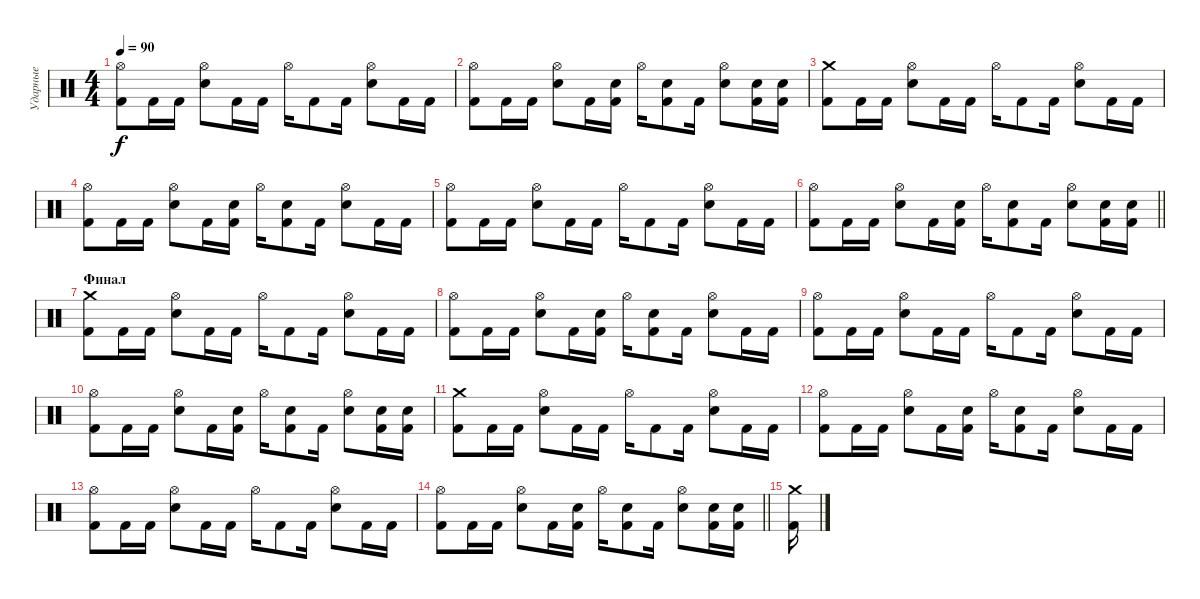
\track ("Ударные" "Ударные") {instrument percussion}
\staff {score}
\articulation defaults
\ts (4 4)
\tempo 90
\clef neutral
\ks c
("Kick (hit) 2" "Hi-Hat (open)").8{dy f} "Kick (hit) 2".16 "Kick (hit) 2".16 ("Electric Snare (hit)" "Hi-Hat (open)").8 "Kick (hit) 2".16 "Kick (hit) 2".16 "Hi-Hat (open)".16 "Kick (hit) 2".8 "Kick (hit) 2".16 ("Electric Snare (hit)" "Hi-Hat (open)").8 "Kick (hit) 2".16 "Kick (hit) 2".16 |
("Kick (hit) 2" "Hi-Hat (open)").8 "Kick (hit) 2".16 "Kick (hit) 2".16 ("Electric Snare (hit)" "Hi-Hat (open)").8 "Kick (hit) 2".16 ("Kick (hit) 2" "Electric Snare (hit)").16 "Hi-Hat (open)".16 ("Kick (hit) 2" "Electric Snare (hit)").8 "Kick (hit) 2".16 ("Electric Snare (hit)" "Hi-Hat (open)").8 ("Kick (hit) 2" "Electric Snare (hit)").16 ("Kick (hit) 2" "Electric Snare (hit)").16 |
("Kick (hit) 2" "Crash medium (hit)").8 "Kick (hit) 2".16 "Kick (hit) 2".16 ("Electric Snare (hit)" "Hi-Hat (open)").8 "Kick (hit) 2".16 "Kick (hit) 2".16 "Hi-Hat (open)".16 "Kick (hit) 2".8 "Kick (hit) 2".16 ("Electric Snare (hit)" "Hi-Hat (open)").8 "Kick (hit) 2".16 "Kick (hit) 2".16 |
("Kick (hit) 2" "Hi-Hat (open)").8 "Kick (hit) 2".16 "Kick (hit) 2".16 ("Electric Snare (hit)" "Hi-Hat (open)").8 "Kick (hit) 2".16 ("Kick (hit) 2" "Electric Snare (hit)").16 "Hi-Hat (open)".16 ("Kick (hit) 2" "Electric Snare (hit)").8 "Kick (hit) 2".16 ("Electric Snare (hit)" "Hi-Hat (open)").8 "Kick (hit) 2".16 "Kick (hit) 2".16 |
("Kick (hit) 2" "Hi-Hat (open)").8 "Kick (hit) 2".16 "Kick (hit) 2".16 ("Electric Snare (hit)" "Hi-Hat (open)").8 "Kick (hit) 2".16 "Kick (hit) 2".16 "Hi-Hat (open)".16 "Kick (hit) 2".8 "Kick (hit) 2".16 ("Electric Snare (hit)" "Hi-Hat (open)").8 "Kick (hit) 2".16 "Kick (hit) 2".16 |
\barLineRight lightlight
("Kick (hit) 2" "Hi-Hat (open)").8 "Kick (hit) 2".16 "Kick (hit) 2".16 ("Electric Snare (hit)" "Hi-Hat (open)").8 "Kick (hit) 2".16 ("Kick (hit) 2" "Electric Snare (hit)").16 "Hi-Hat (open)".16 ("Kick (hit) 2" "Electric Snare (hit)").8 "Kick (hit) 2".16 ("Electric Snare (hit)" "Hi-Hat (open)").8 ("Kick (hit) 2" "Electric Snare (hit)").16 ("Kick (hit) 2" "Electric Snare (hit)").16 |
\section ("" "Финал")
("Kick (hit) 2" "Crash medium (hit)").8 "Kick (hit) 2".16 "Kick (hit) 2".16 ("Electric Snare (hit)" "Hi-Hat (open)").8 "Kick (hit) 2".16 "Kick (hit) 2".16 "Hi-Hat (open)".16 "Kick (hit) 2".8 "Kick (hit) 2".16 ("Electric Snare (hit)" "Hi-Hat (open)").8 "Kick (hit) 2".16 "Kick (hit) 2".16 |
("Kick (hit) 2" "Hi-Hat (open)").8 "Kick (hit) 2".16 "Kick (hit) 2".16 ("Electric Snare (hit)" "Hi-Hat (open)").8 "Kick (hit) 2".16 ("Kick (hit) 2" "Electric Snare (hit)").16 "Hi-Hat (open)".16 ("Kick (hit) 2" "Electric Snare (hit)").8 "Kick (hit) 2".16 ("Electric Snare (hit)" "Hi-Hat (open)").8 "Kick (hit) 2".16 "Kick (hit) 2".16 |
("Kick (hit) 2" "Hi-Hat (open)").8 "Kick (hit) 2".16 "Kick (hit) 2".16 ("Electric Snare (hit)" "Hi-Hat (open)").8 "Kick (hit) 2".16 "Kick (hit) 2".16 "Hi-Hat (open)".16 "Kick (hit) 2".8 "Kick (hit) 2".16 ("Electric Snare (hit)" "Hi-Hat (open)").8 "Kick (hit) 2".16 "Kick (hit) 2".16 |
("Kick (hit) 2" "Hi-Hat (open)").8 "Kick (hit) 2".16 "Kick (hit) 2".16 ("Electric Snare (hit)" "Hi-Hat (open)").8 "Kick (hit) 2".16 ("Kick (hit) 2" "Electric Snare (hit)").16 "Hi-Hat (open)".16 ("Kick (hit) 2" "Electric Snare (hit)").8 "Kick (hit) 2".16 ("Electric Snare (hit)" "Hi-Hat (open)").8 ("Kick (hit) 2" "Electric Snare (hit)").16 ("Kick (hit) 2" "Electric Snare (hit)").16 |
("Kick (hit) 2" "Crash medium (hit)").8 "Kick (hit) 2".16 "Kick (hit) 2".16 ("Electric Snare (hit)" "Hi-Hat (open)").8 "Kick (hit) 2".16 "Kick (hit) 2".16 "Hi-Hat (open)".16 "Kick (hit) 2".8 "Kick (hit) 2".16 ("Electric Snare (hit)" "Hi-Hat (open)").8 "Kick (hit) 2".16 "Kick (hit) 2".16 |
("Kick (hit) 2" "Hi-Hat (open)").8 "Kick (hit) 2".16 "Kick (hit) 2".16 ("Electric Snare (hit)" "Hi-Hat (open)").8 "Kick (hit) 2".16 ("Kick (hit) 2" "Electric Snare (hit)").16 "Hi-Hat (open)".16 ("Kick (hit) 2" "Electric Snare (hit)").8 "Kick (hit) 2".16 ("Electric Snare (hit)" "Hi-Hat (open)").8 "Kick (hit) 2".16 "Kick (hit) 2".16 |
("Kick (hit) 2" "Hi-Hat (open)").8 "Kick (hit) 2".16 "Kick (hit) 2".16 ("Electric Snare (hit)" "Hi-Hat (open)").8 "Kick (hit) 2".16 "Kick (hit) 2".16 "Hi-Hat (open)".16 "Kick (hit) 2".8 "Kick (hit) 2".16 ("Electric Snare (hit)" "Hi-Hat (open)").8 "Kick (hit) 2".16 "Kick (hit) 2".16 |
\barLineRight lightlight
("Kick (hit) 2" "Hi-Hat (open)").8 "Kick (hit) 2".16 "Kick (hit) 2".16 ("Electric Snare (hit)" "Hi-Hat (open)").8 "Kick (hit) 2".16 ("Kick (hit) 2" "Electric Snare (hit)").16 "Hi-Hat (open)".16 ("Kick (hit) 2" "Electric Snare (hit)").8 "Kick (hit) 2".16 ("Electric Snare (hit)" "Hi-Hat (open)").8 ("Kick (hit) 2" "Electric Snare (hit)").16 ("Kick (hit) 2" "Electric Snare (hit)").16 |
("Kick (hit) 2" "Crash medium (hit)").16
